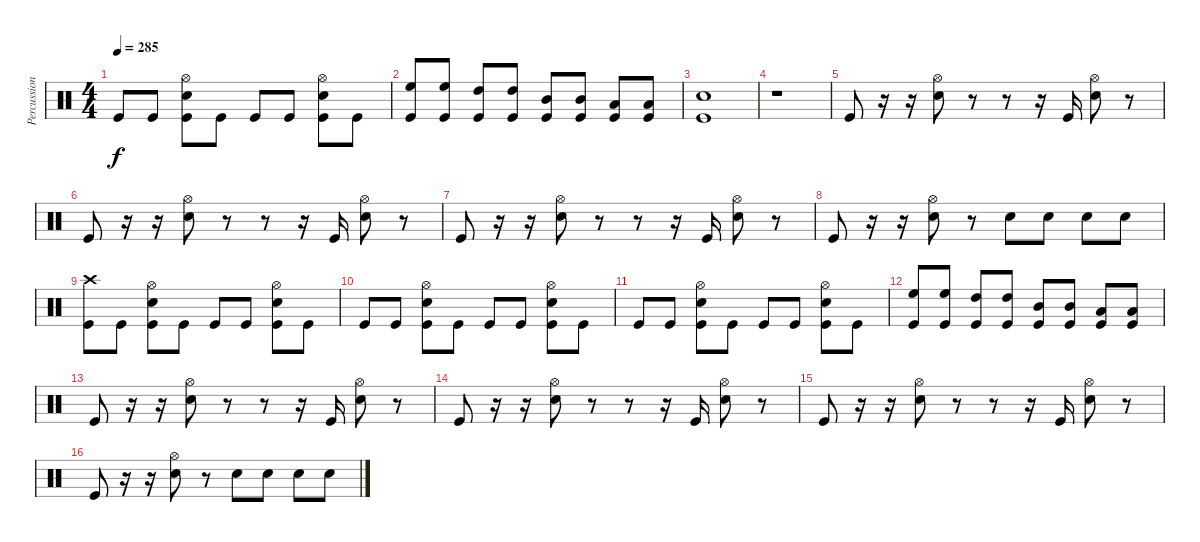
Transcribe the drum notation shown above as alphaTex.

\track ("Percussion" "Percussion") {instrument percussion}
\staff {score}
\articulation defaults
\ts (4 4)
\tempo 285
\clef neutral
\ks c "Kick (hit)".8{dy f} "Kick (hit)".8
("Snare (hit) 2" "Hi-Hat (open)" "Kick (hit)").8 "Kick (hit)".8 "Kick (hit)".8 "Kick (hit)".8 ("Snare (hit) 2" "Hi-Hat (open)" "Kick (hit)").8 "Kick (hit)".8 |
("High Floor Tom (hit)" "Kick (hit)").8 ("High Floor Tom (hit)" "Kick (hit)").8 ("High Tom (hit)" "Kick (hit)").8 ("High Tom (hit)" "Kick (hit)").8 ("Mid Tom (hit)" "Kick (hit)").8 ("Mid Tom (hit)" "Kick (hit)").8 ("Low Tom (hit)" "Kick (hit)").8 ("Low Tom (hit)" "Kick (hit)").8 |
("Snare (hit) 2" "Kick (hit)").1 |
r.1 |
"Kick (hit)".8 r.16 r.16 ("Snare (hit) 2" "Hi-Hat (open)").8 r.8 r.8 r.16 "Kick (hit)".16 ("Snare (hit) 2" "Hi-Hat (open)").8 r.8 |
"Kick (hit)".8 r.16 r.16 ("Snare (hit) 2" "Hi-Hat (open)").8 r.8 r.8 r.16 "Kick (hit)".16 ("Snare (hit) 2" "Hi-Hat (open)").8 r.8 |
"Kick (hit)".8 r.16 r.16 ("Snare (hit) 2" "Hi-Hat (open)").8 r.8 r.8 r.16 "Kick (hit)".16 ("Snare (hit) 2" "Hi-Hat (open)").8 r.8 |
"Kick (hit)".8 r.16 r.16 ("Snare (hit) 2" "Hi-Hat (open)").8 r.8 "Snare (hit) 2".8 "Snare (hit) 2".8 "Snare (hit) 2".8 "Snare (hit) 2".8 |
("Crash high (hit)" "Kick (hit)").8 "Kick (hit)".8 ("Snare (hit) 2" "Hi-Hat (open)" "Kick (hit)").8 "Kick (hit)".8 "Kick (hit)".8 "Kick (hit)".8 ("Snare (hit) 2" "Hi-Hat (open)" "Kick (hit)").8 "Kick (hit)".8 |
"Kick (hit)".8 "Kick (hit)".8 ("Snare (hit) 2" "Hi-Hat (open)" "Kick (hit)").8 "Kick (hit)".8 "Kick (hit)".8 "Kick (hit)".8 ("Snare (hit) 2" "Hi-Hat (open)" "Kick (hit)").8 "Kick (hit)".8 |
"Kick (hit)".8 "Kick (hit)".8 ("Snare (hit) 2" "Hi-Hat (open)" "Kick (hit)").8 "Kick (hit)".8 "Kick (hit)".8 "Kick (hit)".8 ("Snare (hit) 2" "Hi-Hat (open)" "Kick (hit)").8 "Kick (hit)".8 |
("High Floor Tom (hit)" "Kick (hit)").8 ("High Floor Tom (hit)" "Kick (hit)").8 ("High Tom (hit)" "Kick (hit)").8 ("High Tom (hit)" "Kick (hit)").8 ("Mid Tom (hit)" "Kick (hit)").8 ("Mid Tom (hit)" "Kick (hit)").8 ("Low Tom (hit)" "Kick (hit)").8 ("Low Tom (hit)" "Kick (hit)").8 |
"Kick (hit)".8 r.16 r.16 ("Snare (hit) 2" "Hi-Hat (open)").8 r.8 r.8 r.16 "Kick (hit)".16 ("Snare (hit) 2" "Hi-Hat (open)").8 r.8 |
"Kick (hit)".8 r.16 r.16 ("Snare (hit) 2" "Hi-Hat (open)").8 r.8 r.8 r.16 "Kick (hit)".16 ("Snare (hit) 2" "Hi-Hat (open)").8 r.8 |
"Kick (hit)".8 r.16 r.16 ("Snare (hit) 2" "Hi-Hat (open)").8 r.8 r.8 r.16 "Kick (hit)".16 ("Snare (hit) 2" "Hi-Hat (open)").8 r.8 |
"Kick (hit)".8 r.16 r.16 ("Snare (hit) 2" "Hi-Hat (open)").8 r.8 "Snare (hit) 2".8 "Snare (hit) 2".8 "Snare (hit) 2".8 "Snare (hit) 2".8
